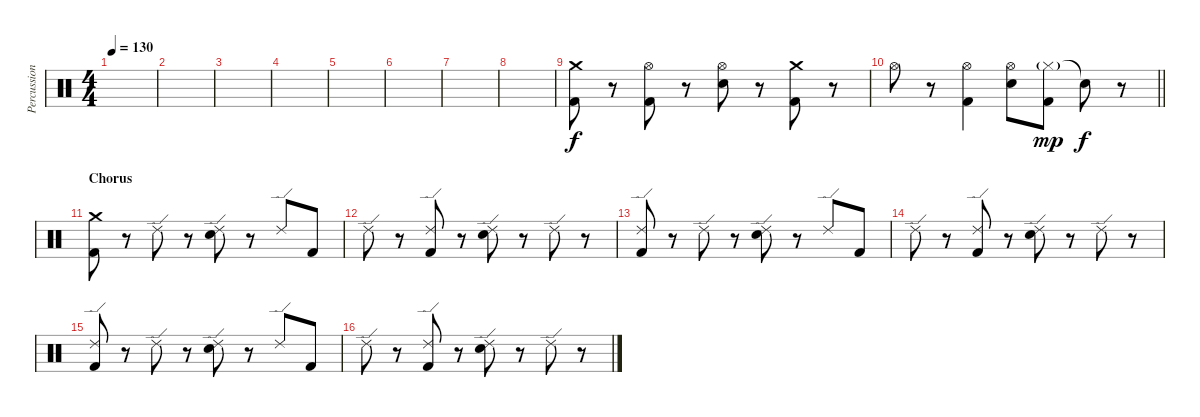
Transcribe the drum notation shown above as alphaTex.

\track ("Percussion" "Percussion") {instrument percussion}
\staff {score}
\articulation defaults
\ts (4 4)
\tempo 130
\clef neutral
\ks c
|
|
|
|
|
|
|
|
("Crash medium (hit)" "Kick (hit) 2").8 r.8 ("Hi-Hat (open)" "Kick (hit) 2").8 r.8 ("Hi-Hat (open)" "Electric Snare (hit)").8 r.8 ("Crash medium (hit)" "Kick (hit) 2").8 r.8 |
\barLineRight lightlight "Hi-Hat (open)".8
r.8 ("Hi-Hat (open)" "Kick (hit) 2").4 ("Hi-Hat (open)" "Electric Snare (hit)").8 ("Hi-Hat (closed)"{g} "Kick (hit) 2").8{dy mp} "Snare (hit)"{t}.8{dy f} r.8 |
\section ("" "Chorus")
("Crash medium (hit)" "Kick (hit) 2").8 r.8 "Ride (edge) 2".8 r.8 ("Ride (edge) 2" "Electric Snare (hit)").8 r.8 "Ride (edge) 2".8 "Kick (hit) 2".8 |
"Ride (edge) 2".8 r.8 ("Ride (edge) 2" "Kick (hit) 2").8 r.8 ("Ride (edge) 2" "Electric Snare (hit)").8 r.8 "Ride (edge) 2".8 r.8 |
("Ride (edge) 2" "Kick (hit) 2").8 r.8 "Ride (edge) 2".8 r.8 ("Ride (edge) 2" "Electric Snare (hit)").8 r.8 "Ride (edge) 2".8 "Kick (hit) 2".8 |
"Ride (edge) 2".8 r.8 ("Ride (edge) 2" "Kick (hit) 2").8 r.8 ("Ride (edge) 2" "Electric Snare (hit)").8 r.8 "Ride (edge) 2".8 r.8 |
("Ride (edge) 2" "Kick (hit) 2").8 r.8 "Ride (edge) 2".8 r.8 ("Ride (edge) 2" "Electric Snare (hit)").8 r.8 "Ride (edge) 2".8 "Kick (hit) 2".8 |
"Ride (edge) 2".8 r.8 ("Ride (edge) 2" "Kick (hit) 2").8 r.8 ("Ride (edge) 2" "Electric Snare (hit)").8 r.8 "Ride (edge) 2".8 r.8
